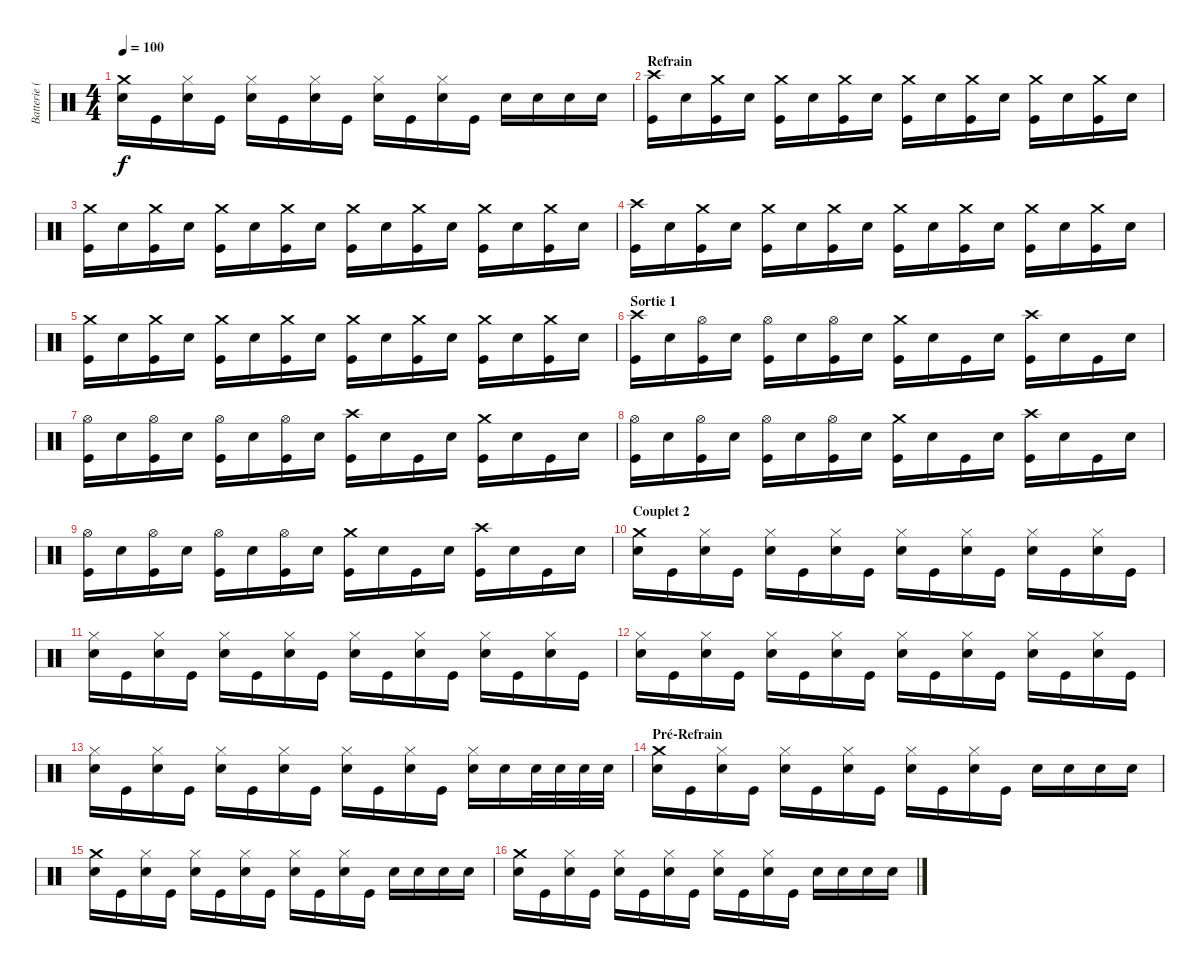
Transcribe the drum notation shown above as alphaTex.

\track ("Batterie (Julien)" "Batterie (") {instrument percussion}
\staff {score}
\articulation defaults
\ts (4 4)
\tempo 100
\clef neutral
\ks c
("Crash medium (hit)" "Electric Snare (hit)").16{dy f} "Kick (hit)".16 ("Hi-Hat (closed)" "Electric Snare (hit)").16 "Kick (hit)".16 ("Hi-Hat (closed)" "Electric Snare (hit)").16 "Kick (hit)".16 ("Hi-Hat (closed)" "Electric Snare (hit)").16 "Kick (hit)".16 ("Hi-Hat (closed)" "Electric Snare (hit)").16 "Kick (hit)".16 ("Hi-Hat (closed)" "Electric Snare (hit)").16 "Kick (hit)".16 "Electric Snare (hit)".16 "Electric Snare (hit)".16 "Electric Snare (hit)".16 "Electric Snare (hit)".16 |
\section ("" "Refrain")
("Crash high (hit)" "Kick (hit)").16 "Electric Snare (hit)".16 ("Crash medium (hit)" "Kick (hit)").16 "Electric Snare (hit)".16 ("Crash medium (hit)" "Kick (hit)").16 "Electric Snare (hit)".16 ("Crash medium (hit)" "Kick (hit)").16 "Electric Snare (hit)".16 ("Crash medium (hit)" "Kick (hit)").16 "Electric Snare (hit)".16 ("Crash medium (hit)" "Kick (hit)").16 "Electric Snare (hit)".16 ("Crash medium (hit)" "Kick (hit)").16 "Electric Snare (hit)".16 ("Crash medium (hit)" "Kick (hit)").16 "Electric Snare (hit)".16 |
("Crash medium (hit)" "Kick (hit)").16 "Electric Snare (hit)".16 ("Crash medium (hit)" "Kick (hit)").16 "Electric Snare (hit)".16 ("Crash medium (hit)" "Kick (hit)").16 "Electric Snare (hit)".16 ("Crash medium (hit)" "Kick (hit)").16 "Electric Snare (hit)".16 ("Crash medium (hit)" "Kick (hit)").16 "Electric Snare (hit)".16 ("Crash medium (hit)" "Kick (hit)").16 "Electric Snare (hit)".16 ("Crash medium (hit)" "Kick (hit)").16 "Electric Snare (hit)".16 ("Crash medium (hit)" "Kick (hit)").16 "Electric Snare (hit)".16 |
("Crash high (hit)" "Kick (hit)").16 "Electric Snare (hit)".16 ("Crash medium (hit)" "Kick (hit)").16 "Electric Snare (hit)".16 ("Crash medium (hit)" "Kick (hit)").16 "Electric Snare (hit)".16 ("Crash medium (hit)" "Kick (hit)").16 "Electric Snare (hit)".16 ("Crash medium (hit)" "Kick (hit)").16 "Electric Snare (hit)".16 ("Crash medium (hit)" "Kick (hit)").16 "Electric Snare (hit)".16 ("Crash medium (hit)" "Kick (hit)").16 "Electric Snare (hit)".16 ("Crash medium (hit)" "Kick (hit)").16 "Electric Snare (hit)".16 |
("Crash medium (hit)" "Kick (hit)").16 "Electric Snare (hit)".16 ("Crash medium (hit)" "Kick (hit)").16 "Electric Snare (hit)".16 ("Crash medium (hit)" "Kick (hit)").16 "Electric Snare (hit)".16 ("Crash medium (hit)" "Kick (hit)").16 "Electric Snare (hit)".16 ("Crash medium (hit)" "Kick (hit)").16 "Electric Snare (hit)".16 ("Crash medium (hit)" "Kick (hit)").16 "Electric Snare (hit)".16 ("Crash medium (hit)" "Kick (hit)").16 "Electric Snare (hit)".16 ("Crash medium (hit)" "Kick (hit)").16 "Electric Snare (hit)".16 |
\section ("" "Sortie 1")
("Crash high (hit)" "Kick (hit)").16 "Electric Snare (hit)".16 ("Hi-Hat (open)" "Kick (hit)").16 "Electric Snare (hit)".16 ("Hi-Hat (open)" "Kick (hit)").16 "Electric Snare (hit)".16 ("Hi-Hat (open)" "Kick (hit)").16 "Electric Snare (hit)".16 ("Crash medium (hit)" "Kick (hit)").16 "Electric Snare (hit)".16 "Kick (hit)".16 "Electric Snare (hit)".16 ("Crash high (hit)" "Kick (hit)").16 "Electric Snare (hit)".16 "Kick (hit)".16 "Electric Snare (hit)".16 |
("Hi-Hat (open)" "Kick (hit)").16 "Electric Snare (hit)".16 ("Hi-Hat (open)" "Kick (hit)").16 "Electric Snare (hit)".16 ("Hi-Hat (open)" "Kick (hit)").16 "Electric Snare (hit)".16 ("Hi-Hat (open)" "Kick (hit)").16 "Electric Snare (hit)".16 ("Crash high (hit)" "Kick (hit)").16 "Electric Snare (hit)".16 "Kick (hit)".16 "Electric Snare (hit)".16 ("Crash medium (hit)" "Kick (hit)").16 "Electric Snare (hit)".16 "Kick (hit)".16 "Electric Snare (hit)".16 |
("Hi-Hat (open)" "Kick (hit)").16 "Electric Snare (hit)".16 ("Hi-Hat (open)" "Kick (hit)").16 "Electric Snare (hit)".16 ("Hi-Hat (open)" "Kick (hit)").16 "Electric Snare (hit)".16 ("Hi-Hat (open)" "Kick (hit)").16 "Electric Snare (hit)".16 ("Crash medium (hit)" "Kick (hit)").16 "Electric Snare (hit)".16 "Kick (hit)".16 "Electric Snare (hit)".16 ("Crash high (hit)" "Kick (hit)").16 "Electric Snare (hit)".16 "Kick (hit)".16 "Electric Snare (hit)".16 |
("Hi-Hat (open)" "Kick (hit)").16 "Electric Snare (hit)".16 ("Hi-Hat (open)" "Kick (hit)").16 "Electric Snare (hit)".16 ("Hi-Hat (open)" "Kick (hit)").16 "Electric Snare (hit)".16 ("Hi-Hat (open)" "Kick (hit)").16 "Electric Snare (hit)".16 ("Crash medium (hit)" "Kick (hit)").16 "Electric Snare (hit)".16 "Kick (hit)".16 "Electric Snare (hit)".16 ("Crash high (hit)" "Kick (hit)").16 "Electric Snare (hit)".16 "Kick (hit)".16 "Electric Snare (hit)".16 |
\section ("" "Couplet 2")
("Crash medium (hit)" "Electric Snare (hit)").16 "Kick (hit)".16 ("Hi-Hat (closed)" "Electric Snare (hit)").16 "Kick (hit)".16 ("Hi-Hat (closed)" "Electric Snare (hit)").16 "Kick (hit)".16 ("Hi-Hat (closed)" "Electric Snare (hit)").16 "Kick (hit)".16 ("Hi-Hat (closed)" "Electric Snare (hit)").16 "Kick (hit)".16 ("Hi-Hat (closed)" "Electric Snare (hit)").16 "Kick (hit)".16 ("Hi-Hat (closed)" "Electric Snare (hit)").16 "Kick (hit)".16 ("Hi-Hat (closed)" "Electric Snare (hit)").16 "Kick (hit)".16 |
("Hi-Hat (closed)" "Electric Snare (hit)").16 "Kick (hit)".16 ("Hi-Hat (closed)" "Electric Snare (hit)").16 "Kick (hit)".16 ("Hi-Hat (closed)" "Electric Snare (hit)").16 "Kick (hit)".16 ("Hi-Hat (closed)" "Electric Snare (hit)").16 "Kick (hit)".16 ("Hi-Hat (closed)" "Electric Snare (hit)").16 "Kick (hit)".16 ("Hi-Hat (closed)" "Electric Snare (hit)").16 "Kick (hit)".16 ("Hi-Hat (closed)" "Electric Snare (hit)").16 "Kick (hit)".16 ("Hi-Hat (closed)" "Electric Snare (hit)").16 "Kick (hit)".16 |
("Hi-Hat (closed)" "Electric Snare (hit)").16 "Kick (hit)".16 ("Hi-Hat (closed)" "Electric Snare (hit)").16 "Kick (hit)".16 ("Hi-Hat (closed)" "Electric Snare (hit)").16 "Kick (hit)".16 ("Hi-Hat (closed)" "Electric Snare (hit)").16 "Kick (hit)".16 ("Hi-Hat (closed)" "Electric Snare (hit)").16 "Kick (hit)".16 ("Hi-Hat (closed)" "Electric Snare (hit)").16 "Kick (hit)".16 ("Hi-Hat (closed)" "Electric Snare (hit)").16 "Kick (hit)".16 ("Hi-Hat (closed)" "Electric Snare (hit)").16 "Kick (hit)".16 |
("Hi-Hat (closed)" "Electric Snare (hit)").16 "Kick (hit)".16 ("Hi-Hat (closed)" "Electric Snare (hit)").16 "Kick (hit)".16 ("Hi-Hat (closed)" "Electric Snare (hit)").16 "Kick (hit)".16 ("Hi-Hat (closed)" "Electric Snare (hit)").16 "Kick (hit)".16 ("Hi-Hat (closed)" "Electric Snare (hit)").16 "Kick (hit)".16 ("Hi-Hat (closed)" "Electric Snare (hit)").16 "Kick (hit)".16 ("Hi-Hat (closed)" "Electric Snare (hit)").16 "Electric Snare (hit)".16 "Electric Snare (hit)".32 "Electric Snare (hit)".32 "Electric Snare (hit)".32 "Electric Snare (hit)".32 |
\section ("" "Pré-Refrain")
("Crash medium (hit)" "Electric Snare (hit)").16 "Kick (hit)".16 ("Hi-Hat (closed)" "Electric Snare (hit)").16 "Kick (hit)".16 ("Hi-Hat (closed)" "Electric Snare (hit)").16 "Kick (hit)".16 ("Hi-Hat (closed)" "Electric Snare (hit)").16 "Kick (hit)".16 ("Hi-Hat (closed)" "Electric Snare (hit)").16 "Kick (hit)".16 ("Hi-Hat (closed)" "Electric Snare (hit)").16 "Kick (hit)".16 "Electric Snare (hit)".16 "Electric Snare (hit)".16 "Electric Snare (hit)".16 "Electric Snare (hit)".16 |
("Crash medium (hit)" "Electric Snare (hit)").16 "Kick (hit)".16 ("Hi-Hat (closed)" "Electric Snare (hit)").16 "Kick (hit)".16 ("Hi-Hat (closed)" "Electric Snare (hit)").16 "Kick (hit)".16 ("Hi-Hat (closed)" "Electric Snare (hit)").16 "Kick (hit)".16 ("Hi-Hat (closed)" "Electric Snare (hit)").16 "Kick (hit)".16 ("Hi-Hat (closed)" "Electric Snare (hit)").16 "Kick (hit)".16 "Electric Snare (hit)".16 "Electric Snare (hit)".16 "Electric Snare (hit)".16 "Electric Snare (hit)".16 |
("Crash medium (hit)" "Electric Snare (hit)").16 "Kick (hit)".16 ("Hi-Hat (closed)" "Electric Snare (hit)").16 "Kick (hit)".16 ("Hi-Hat (closed)" "Electric Snare (hit)").16 "Kick (hit)".16 ("Hi-Hat (closed)" "Electric Snare (hit)").16 "Kick (hit)".16 ("Hi-Hat (closed)" "Electric Snare (hit)").16 "Kick (hit)".16 ("Hi-Hat (closed)" "Electric Snare (hit)").16 "Kick (hit)".16 "Electric Snare (hit)".16 "Electric Snare (hit)".16 "Electric Snare (hit)".16 "Electric Snare (hit)".16
